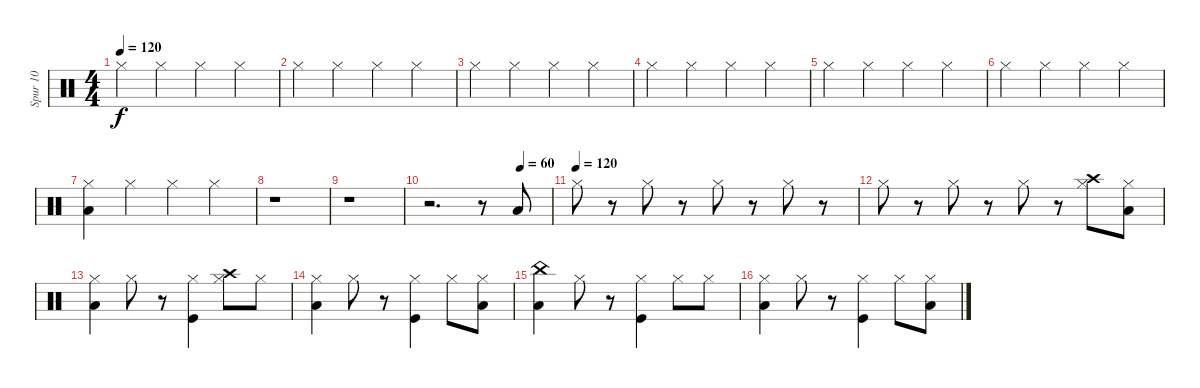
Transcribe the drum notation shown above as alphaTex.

\track ("Spur 10" "Spur 10") {instrument percussion}
\staff {score}
\articulation defaults
\ts (4 4)
\tempo 120
\clef neutral
\ks c "Hi-Hat (closed)".4{dy f} "Hi-Hat (closed)".4 "Hi-Hat (closed)".4 "Hi-Hat (closed)".4
|
"Hi-Hat (closed)".4 "Hi-Hat (closed)".4 "Hi-Hat (closed)".4 "Hi-Hat (closed)".4 |
"Hi-Hat (closed)".4 "Hi-Hat (closed)".4 "Hi-Hat (closed)".4 "Hi-Hat (closed)".4 |
"Hi-Hat (closed)".4 "Hi-Hat (closed)".4 "Hi-Hat (closed)".4 "Hi-Hat (closed)".4 |
"Hi-Hat (closed)".4 "Hi-Hat (closed)".4 "Hi-Hat (closed)".4 "Hi-Hat (closed)".4 |
"Hi-Hat (closed)".4 "Hi-Hat (closed)".4 "Hi-Hat (closed)".4 "Hi-Hat (closed)".4 |
("Hi-Hat (closed)" "Low Floor Tom (hit)").4 "Hi-Hat (closed)".4 "Hi-Hat (closed)".4 "Hi-Hat (closed)".4 |
r.1 |
r.1 |
\tempo (60 0.75)
r.2{d} r.8 "Low Tom (hit)".8 |
\tempo (120)
"Hi-Hat (closed)".8 r.8 "Hi-Hat (closed)".8 r.8 "Hi-Hat (closed)".8 r.8 "Hi-Hat (closed)".8 r.8 |
"Hi-Hat (closed)".8 r.8 "Hi-Hat (closed)".8 r.8 "Hi-Hat (closed)".8 r.8 ("Hi-Hat (closed)" "Crash high (hit)").8 ("Low Tom (hit)" "Hi-Hat (closed)").8 |
("Low Floor Tom (hit)" "Hi-Hat (closed)").4 "Hi-Hat (closed)".8 r.8 ("Hi-Hat (closed)" "Kick (hit)").4 ("Hi-Hat (closed)" "Crash high (hit)").8 "Hi-Hat (closed)".8 |
("Hi-Hat (closed)" "Low Floor Tom (hit)").4 "Hi-Hat (closed)".8 r.8 ("Hi-Hat (closed)" "Kick (hit)").4 "Hi-Hat (closed)".8 ("Hi-Hat (closed)" "Low Tom (hit)").8 |
("Low Floor Tom (hit)" "China (hit)").4 "Hi-Hat (closed)".8 r.8 ("Hi-Hat (closed)" "Kick (hit)").4 "Hi-Hat (closed)".8 "Hi-Hat (closed)".8 |
("Hi-Hat (closed)" "Low Floor Tom (hit)").4 "Hi-Hat (closed)".8 r.8 ("Hi-Hat (closed)" "Kick (hit)").4 "Hi-Hat (closed)".8 ("Hi-Hat (closed)" "Low Tom (hit)").8
